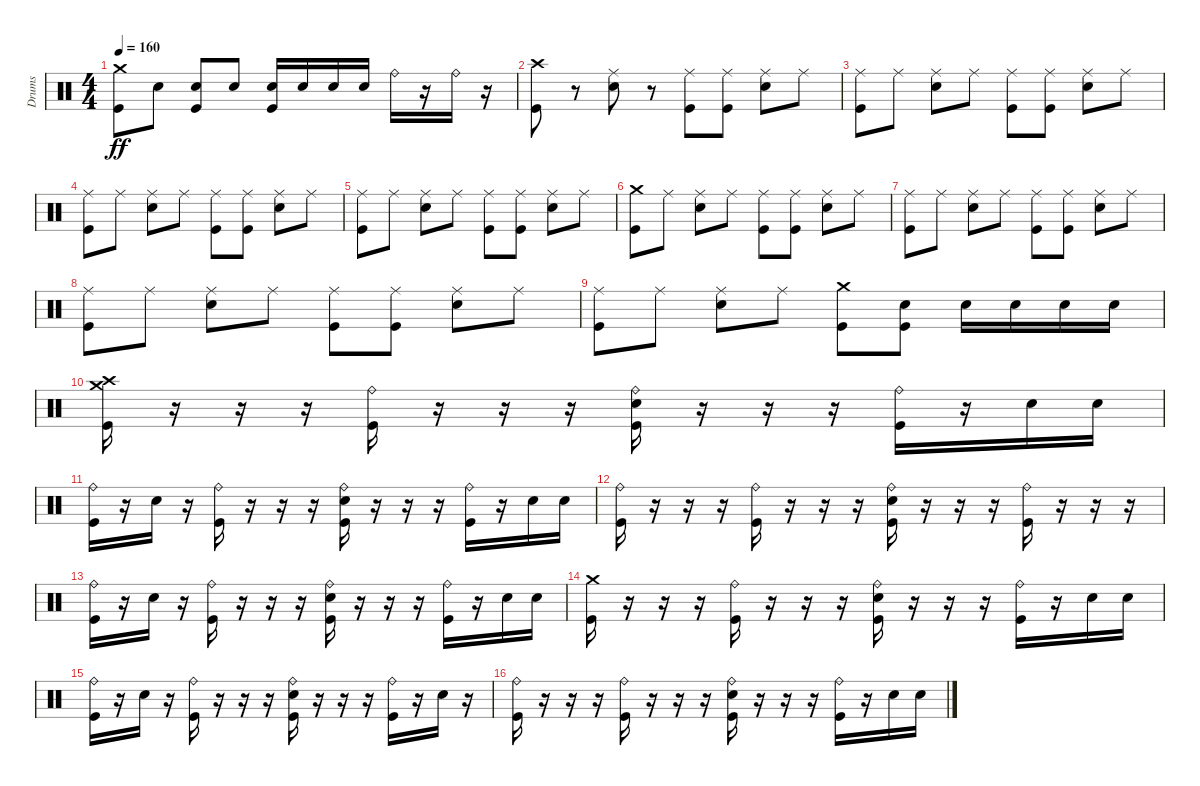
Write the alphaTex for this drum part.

\track ("Drums" "Drums") {instrument percussion}
\staff {score}
\articulation defaults
\ts (4 4)
\tempo 160
\clef neutral
\ks c
("Crash medium (hit)" "Kick (hit)").8{dy ff} "Electric Snare (hit)".8 ("Electric Snare (hit)" "Kick (hit)").8 "Electric Snare (hit)".8 ("Electric Snare (hit)" "Kick (hit)").16 "Electric Snare (hit)".16 "Electric Snare (hit)".16 "Electric Snare (hit)".16 "Ride (bell)".16 r.16 "Ride (bell)".16 r.16 |
("Crash high (hit)" "Kick (hit)").8 r.8 ("Ride (middle)" "Electric Snare (hit)").8 r.8 ("Ride (middle)" "Kick (hit)").8 ("Ride (middle)" "Kick (hit)").8 ("Ride (middle)" "Electric Snare (hit)").8 "Ride (middle)".8 |
("Ride (middle)" "Kick (hit)").8 "Ride (middle)".8 ("Ride (middle)" "Electric Snare (hit)").8 "Ride (middle)".8 ("Ride (middle)" "Kick (hit)").8 ("Ride (middle)" "Kick (hit)").8 ("Ride (middle)" "Electric Snare (hit)").8 "Ride (middle)".8 |
("Ride (middle)" "Kick (hit)").8 "Ride (middle)".8 ("Ride (middle)" "Electric Snare (hit)").8 "Ride (middle)".8 ("Ride (middle)" "Kick (hit)").8 ("Ride (middle)" "Kick (hit)").8 ("Ride (middle)" "Electric Snare (hit)").8 "Ride (middle)".8 |
("Ride (middle)" "Kick (hit)").8 "Ride (middle)".8 ("Ride (middle)" "Electric Snare (hit)").8 "Ride (middle)".8 ("Ride (middle)" "Kick (hit)").8 ("Ride (middle)" "Kick (hit)").8 ("Ride (middle)" "Electric Snare (hit)").8 "Ride (middle)".8 |
("Crash medium (hit)" "Kick (hit)").8 "Ride (middle)".8 ("Ride (middle)" "Electric Snare (hit)").8 "Ride (middle)".8 ("Ride (middle)" "Kick (hit)").8 ("Ride (middle)" "Kick (hit)").8 ("Ride (middle)" "Electric Snare (hit)").8 "Ride (middle)".8 |
("Ride (middle)" "Kick (hit)").8 "Ride (middle)".8 ("Ride (middle)" "Electric Snare (hit)").8 "Ride (middle)".8 ("Ride (middle)" "Kick (hit)").8 ("Ride (middle)" "Kick (hit)").8 ("Ride (middle)" "Electric Snare (hit)").8 "Ride (middle)".8 |
("Ride (middle)" "Kick (hit)").8 "Ride (middle)".8 ("Ride (middle)" "Electric Snare (hit)").8 "Ride (middle)".8 ("Ride (middle)" "Kick (hit)").8 ("Ride (middle)" "Kick (hit)").8 ("Ride (middle)" "Electric Snare (hit)").8 "Ride (middle)".8 |
("Ride (middle)" "Kick (hit)").8 "Ride (middle)".8 ("Ride (middle)" "Electric Snare (hit)").8 "Ride (middle)".8 ("Crash medium (hit)" "Kick (hit)").8 ("Electric Snare (hit)" "Kick (hit)").8 "Electric Snare (hit)".16 "Electric Snare (hit)".16 "Electric Snare (hit)".16 "Electric Snare (hit)".16 |
("Crash high (hit)" "Crash medium (hit)" "Kick (hit)").16 r.16 r.16 r.16 ("Ride (bell)" "Kick (hit)").16 r.16 r.16 r.16 ("Ride (bell)" "Electric Snare (hit)" "Kick (hit)").16 r.16 r.16 r.16 ("Ride (bell)" "Kick (hit)").16 r.16 "Electric Snare (hit)".16 "Electric Snare (hit)".16 |
("Ride (bell)" "Kick (hit)").16 r.16 "Electric Snare (hit)".16 r.16 ("Ride (bell)" "Kick (hit)").16 r.16 r.16 r.16 ("Ride (bell)" "Electric Snare (hit)" "Kick (hit)").16 r.16 r.16 r.16 ("Ride (bell)" "Kick (hit)").16 r.16 "Electric Snare (hit)".16 "Electric Snare (hit)".16 |
("Ride (bell)" "Kick (hit)").16 r.16 r.16 r.16 ("Ride (bell)" "Kick (hit)").16 r.16 r.16 r.16 ("Ride (bell)" "Electric Snare (hit)" "Kick (hit)").16 r.16 r.16 r.16 ("Ride (bell)" "Kick (hit)").16 r.16 r.16 r.16 |
("Ride (bell)" "Kick (hit)").16 r.16 "Electric Snare (hit)".16 r.16 ("Ride (bell)" "Kick (hit)").16 r.16 r.16 r.16 ("Ride (bell)" "Electric Snare (hit)" "Kick (hit)").16 r.16 r.16 r.16 ("Ride (bell)" "Kick (hit)").16 r.16 "Electric Snare (hit)".16 "Electric Snare (hit)".16 |
("Crash medium (hit)" "Kick (hit)").16 r.16 r.16 r.16 ("Ride (bell)" "Kick (hit)").16 r.16 r.16 r.16 ("Ride (bell)" "Electric Snare (hit)" "Kick (hit)").16 r.16 r.16 r.16 ("Ride (bell)" "Kick (hit)").16 r.16 "Electric Snare (hit)".16 "Electric Snare (hit)".16 |
("Ride (bell)" "Kick (hit)").16 r.16 "Electric Snare (hit)".16 r.16 ("Ride (bell)" "Kick (hit)").16 r.16 r.16 r.16 ("Ride (bell)" "Electric Snare (hit)" "Kick (hit)").16 r.16 r.16 r.16 ("Ride (bell)" "Kick (hit)").16 r.16 "Electric Snare (hit)".16 r.16 |
("Ride (bell)" "Kick (hit)").16 r.16 r.16 r.16 ("Ride (bell)" "Kick (hit)").16 r.16 r.16 r.16 ("Ride (bell)" "Electric Snare (hit)" "Kick (hit)").16 r.16 r.16 r.16 ("Ride (bell)" "Kick (hit)").16 r.16 "Electric Snare (hit)".16 "Electric Snare (hit)".16
